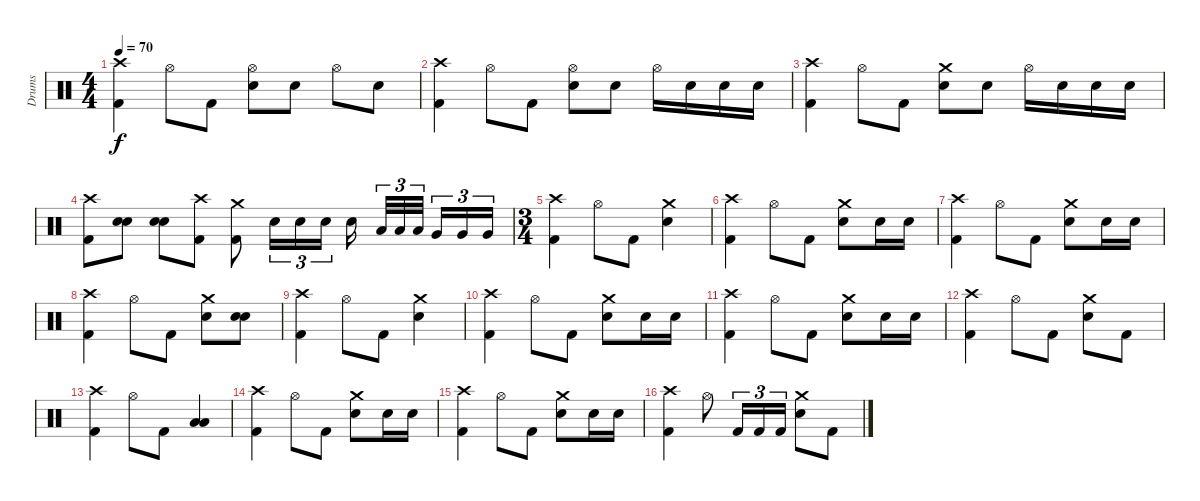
\track ("Drums" "Drums") {instrument percussion}
\staff {score}
\articulation defaults
\ts (4 4)
\tempo 70
\clef neutral
\ks c
("Crash high (hit)" "Kick (hit) 2").4{dy f} "Hi-Hat (open)".8 "Kick (hit) 2".8 ("Hi-Hat (open)" "Electric Snare (hit)").8 "Electric Snare (hit)".8 "Hi-Hat (open)".8 "Electric Snare (hit)".8 |
("Crash high (hit)" "Kick (hit) 2").4 "Hi-Hat (open)".8 "Kick (hit) 2".8 ("Hi-Hat (open)" "Electric Snare (hit)").8 "Electric Snare (hit)".8 "Hi-Hat (open)".16 "Electric Snare (hit)".16 "Electric Snare (hit)".16 "Electric Snare (hit)".16 |
("Crash high (hit)" "Kick (hit) 2").4 "Hi-Hat (open)".8 "Kick (hit) 2".8 ("Crash medium (hit)" "Electric Snare (hit)").8 "Electric Snare (hit)".8 "Hi-Hat (open)".16 "Electric Snare (hit)".16 "Electric Snare (hit)".16 "Electric Snare (hit)".16 |
("Crash high (hit)" "Kick (hit) 2").8 ("Electric Snare (hit)" "Electric Snare (hit)").8{bu 60} ("Electric Snare (hit)" "Electric Snare (hit)").8{bu 60} ("Crash high (hit)" "Kick (hit) 2").8 ("Crash medium (hit)" "Kick (hit) 2").8 "Electric Snare (hit)".16{tu (3 2)} "Electric Snare (hit)".16{tu (3 2)} "Electric Snare (hit)".16{tu (3 2)} "Electric Snare (hit)".16 "Low Tom (hit)".32{tu (3 2)} "Low Tom (hit)".32{tu (3 2)} "Low Tom (hit)".32{tu (3 2)} "Very Low Tom (hit)".16{tu (3 2)} "Very Low Tom (hit)".16{tu (3 2)} "Very Low Tom (hit)".16{tu (3 2)} |
\ts (3 4)
("Crash high (hit)" "Kick (hit) 2").4 "Hi-Hat (open)".8 "Kick (hit) 2".8 ("Crash medium (hit)" "Electric Snare (hit)").4 |
("Crash high (hit)" "Kick (hit) 2").4 "Hi-Hat (open)".8 "Kick (hit) 2".8 ("Crash medium (hit)" "Electric Snare (hit)").8 "Electric Snare (hit)".16 "Electric Snare (hit)".16 |
("Crash high (hit)" "Kick (hit) 2").4 "Hi-Hat (open)".8 "Kick (hit) 2".8 ("Crash medium (hit)" "Electric Snare (hit)").8 "Electric Snare (hit)".16 "Electric Snare (hit)".16 |
("Crash high (hit)" "Kick (hit) 2").4 "Hi-Hat (open)".8 "Kick (hit) 2".8 ("Crash medium (hit)" "Electric Snare (hit)").8 ("Electric Snare (hit)" "Electric Snare (hit)").8{bu 60} |
("Crash high (hit)" "Kick (hit) 2").4 "Hi-Hat (open)".8 "Kick (hit) 2".8 ("Crash medium (hit)" "Electric Snare (hit)").4 |
("Crash high (hit)" "Kick (hit) 2").4 "Hi-Hat (open)".8 "Kick (hit) 2".8 ("Crash medium (hit)" "Electric Snare (hit)").8 "Electric Snare (hit)".16 "Electric Snare (hit)".16 |
("Crash high (hit)" "Kick (hit) 2").4 "Hi-Hat (open)".8 "Kick (hit) 2".8 ("Crash medium (hit)" "Electric Snare (hit)").8 "Electric Snare (hit)".16 "Electric Snare (hit)".16 |
("Crash high (hit)" "Kick (hit) 2").4 "Hi-Hat (open)".8 "Kick (hit) 2".8 ("Crash medium (hit)" "Electric Snare (hit)").8 "Kick (hit) 2".8 |
("Crash high (hit)" "Kick (hit) 2").4 "Hi-Hat (open)".8 "Kick (hit) 2".8 ("Low Floor Tom (hit)" "Low Floor Tom (hit)").4 |
("Crash high (hit)" "Kick (hit) 2").4 "Hi-Hat (open)".8 "Kick (hit) 2".8 ("Crash medium (hit)" "Electric Snare (hit)").8 "Electric Snare (hit)".16 "Electric Snare (hit)".16 |
("Crash high (hit)" "Kick (hit) 2").4 "Hi-Hat (open)".8 "Kick (hit) 2".8 ("Crash medium (hit)" "Electric Snare (hit)").8 "Electric Snare (hit)".16 "Electric Snare (hit)".16 |
("Crash high (hit)" "Kick (hit) 2").4 "Hi-Hat (open)".8 "Kick (hit) 2".16{tu (3 2)} "Kick (hit) 2".16{tu (3 2)} "Kick (hit) 2".16{tu (3 2)} ("Crash medium (hit)" "Electric Snare (hit)").8 "Kick (hit) 2".8
